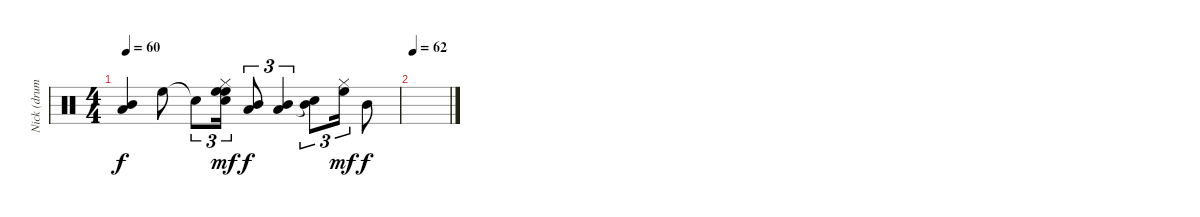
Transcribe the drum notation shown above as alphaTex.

\track ("Nick (drums)" "Nick (drum") {instrument percussion}
\staff {score}
\articulation defaults
\ts (4 4)
\tempo 60
\clef neutral
\ks c
("Mid Tom (hit)" "Low Tom (hit)").4{dy f} "High Floor Tom (hit)".8 "Snare (hit)"{t}.8{tu (3 2)} ("Hi-Hat (closed)" "High Floor Tom (hit)" "High Floor Tom (hit)" "Snare (hit)").16{tu (3 2) dy mf} ("Mid Tom (hit)" "Low Tom (hit)").8{tu (3 2) dy f} ("Mid Tom (hit)" "Low Tom (hit)").4{tu (3 2)} ("Mid Tom (hit)" "Snare (hit)"{t}).8{tu (3 2)} ("Hi-Hat (closed)" "High Floor Tom (hit)").16{tu (3 2) dy mf} "Mid Tom (hit)".8{dy f} |
\tempo 62
